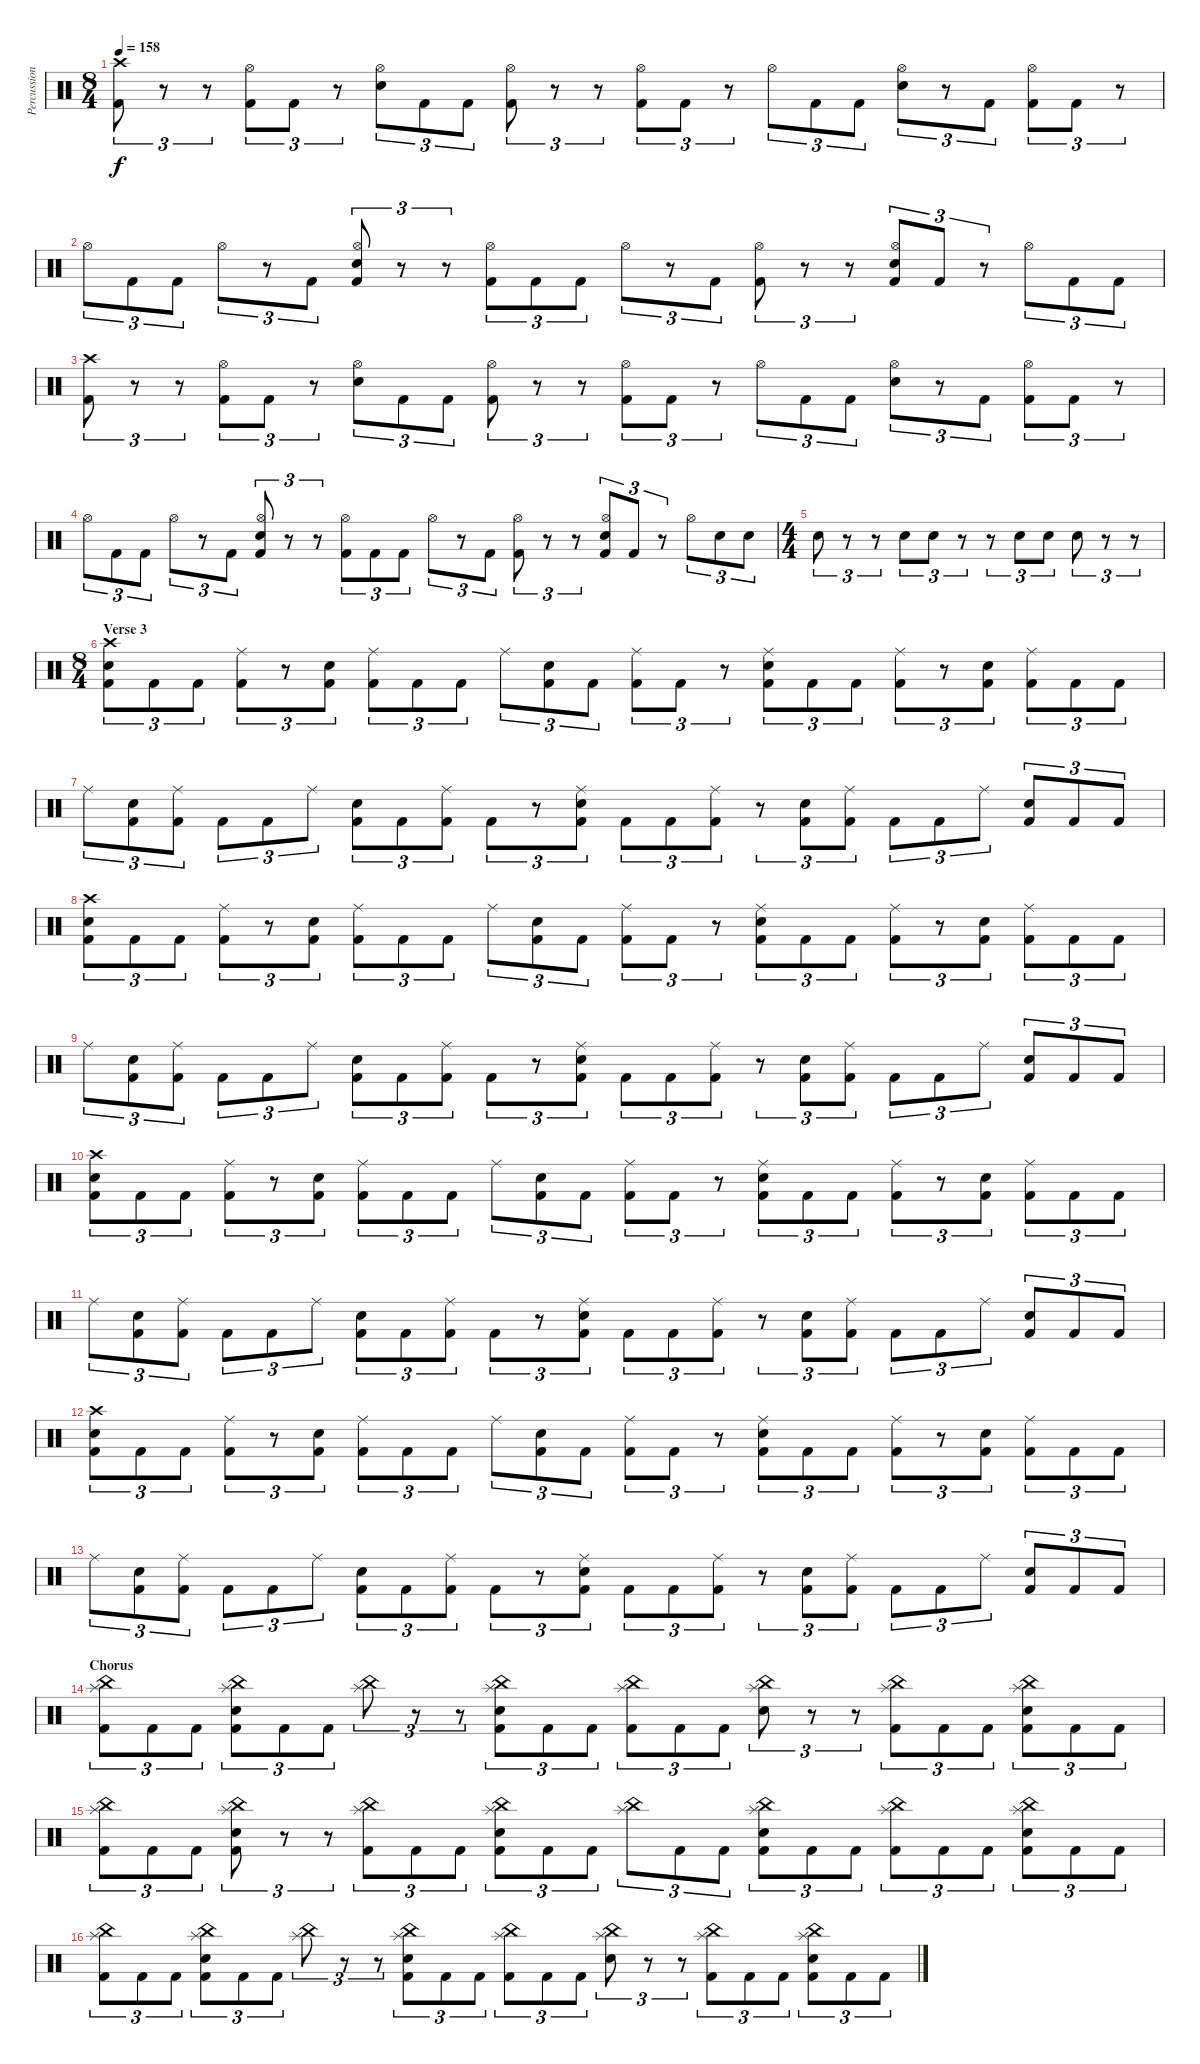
\track ("Percussion" "Percussion") {instrument percussion}
\staff {score}
\articulation defaults
\ts (8 4)
\tempo 158
\clef neutral
\ks c
("Crash high (hit)" "Kick (hit) 2").8{tu (3 2) dy f} r.8{tu (3 2)} r.8{tu (3 2)} ("Hi-Hat (open)" "Kick (hit) 2").8{tu (3 2)} "Kick (hit) 2".8{tu (3 2)} r.8{tu (3 2)} ("Hi-Hat (open)" "Electric Snare (hit)").8{tu (3 2)} "Kick (hit) 2".8{tu (3 2)} "Kick (hit) 2".8{tu (3 2)} ("Hi-Hat (open)" "Kick (hit) 2").8{tu (3 2)} r.8{tu (3 2)} r.8{tu (3 2)} ("Hi-Hat (open)" "Kick (hit) 2").8{tu (3 2)} "Kick (hit) 2".8{tu (3 2)} r.8{tu (3 2)} "Hi-Hat (open)".8{tu (3 2)} "Kick (hit) 2".8{tu (3 2)} "Kick (hit) 2".8{tu (3 2)} ("Hi-Hat (open)" "Electric Snare (hit)").8{tu (3 2)} r.8{tu (3 2)} "Kick (hit) 2".8{tu (3 2)} ("Hi-Hat (open)" "Kick (hit) 2").8{tu (3 2)} "Kick (hit) 2".8{tu (3 2)} r.8{tu (3 2)} |
"Hi-Hat (open)".8{tu (3 2)} "Kick (hit) 2".8{tu (3 2)} "Kick (hit) 2".8{tu (3 2)} "Hi-Hat (open)".8{tu (3 2)} r.8{tu (3 2)} "Kick (hit) 2".8{tu (3 2)} ("Hi-Hat (open)" "Electric Snare (hit)" "Kick (hit) 2").8{tu (3 2)} r.8{tu (3 2)} r.8{tu (3 2)} ("Hi-Hat (open)" "Kick (hit) 2").8{tu (3 2)} "Kick (hit) 2".8{tu (3 2)} "Kick (hit) 2".8{tu (3 2)} "Hi-Hat (open)".8{tu (3 2)} r.8{tu (3 2)} "Kick (hit) 2".8{tu (3 2)} ("Hi-Hat (open)" "Kick (hit) 2").8{tu (3 2)} r.8{tu (3 2)} r.8{tu (3 2)} ("Hi-Hat (open)" "Electric Snare (hit)" "Kick (hit) 2").8{tu (3 2)} "Kick (hit) 2".8{tu (3 2)} r.8{tu (3 2)} "Hi-Hat (open)".8{tu (3 2)} "Kick (hit) 2".8{tu (3 2)} "Kick (hit) 2".8{tu (3 2)} |
("Crash high (hit)" "Kick (hit) 2").8{tu (3 2)} r.8{tu (3 2)} r.8{tu (3 2)} ("Hi-Hat (open)" "Kick (hit) 2").8{tu (3 2)} "Kick (hit) 2".8{tu (3 2)} r.8{tu (3 2)} ("Hi-Hat (open)" "Electric Snare (hit)").8{tu (3 2)} "Kick (hit) 2".8{tu (3 2)} "Kick (hit) 2".8{tu (3 2)} ("Hi-Hat (open)" "Kick (hit) 2").8{tu (3 2)} r.8{tu (3 2)} r.8{tu (3 2)} ("Hi-Hat (open)" "Kick (hit) 2").8{tu (3 2)} "Kick (hit) 2".8{tu (3 2)} r.8{tu (3 2)} "Hi-Hat (open)".8{tu (3 2)} "Kick (hit) 2".8{tu (3 2)} "Kick (hit) 2".8{tu (3 2)} ("Hi-Hat (open)" "Electric Snare (hit)").8{tu (3 2)} r.8{tu (3 2)} "Kick (hit) 2".8{tu (3 2)} ("Hi-Hat (open)" "Kick (hit) 2").8{tu (3 2)} "Kick (hit) 2".8{tu (3 2)} r.8{tu (3 2)} |
"Hi-Hat (open)".8{tu (3 2)} "Kick (hit) 2".8{tu (3 2)} "Kick (hit) 2".8{tu (3 2)} "Hi-Hat (open)".8{tu (3 2)} r.8{tu (3 2)} "Kick (hit) 2".8{tu (3 2)} ("Hi-Hat (open)" "Electric Snare (hit)" "Kick (hit) 2").8{tu (3 2)} r.8{tu (3 2)} r.8{tu (3 2)} ("Hi-Hat (open)" "Kick (hit) 2").8{tu (3 2)} "Kick (hit) 2".8{tu (3 2)} "Kick (hit) 2".8{tu (3 2)} "Hi-Hat (open)".8{tu (3 2)} r.8{tu (3 2)} "Kick (hit) 2".8{tu (3 2)} ("Hi-Hat (open)" "Kick (hit) 2").8{tu (3 2)} r.8{tu (3 2)} r.8{tu (3 2)} ("Hi-Hat (open)" "Electric Snare (hit)" "Kick (hit) 2").8{tu (3 2)} "Kick (hit) 2".8{tu (3 2)} r.8{tu (3 2)} "Hi-Hat (open)".8{tu (3 2)} "Electric Snare (hit)".8{tu (3 2)} "Electric Snare (hit)".8{tu (3 2)} |
\ts (4 4)
"Electric Snare (hit)".8{tu (3 2)} r.8{tu (3 2)} r.8{tu (3 2)} "Electric Snare (hit)".8{tu (3 2)} "Electric Snare (hit)".8{tu (3 2)} r.8{tu (3 2)} r.8{tu (3 2)} "Electric Snare (hit)".8{tu (3 2)} "Electric Snare (hit)".8{tu (3 2)} "Electric Snare (hit)".8{tu (3 2)} r.8{tu (3 2)} r.8{tu (3 2)} |
\ts (8 4)
\section ("" "Verse 3")
("Crash high (hit)" "Electric Snare (hit)" "Kick (hit) 2").8{tu (3 2)} "Kick (hit) 2".8{tu (3 2)} "Kick (hit) 2".8{tu (3 2)} ("Ride (middle)" "Kick (hit) 2").8{tu (3 2)} r.8{tu (3 2)} ("Electric Snare (hit)" "Kick (hit) 2").8{tu (3 2)} ("Ride (middle)" "Kick (hit) 2").8{tu (3 2)} "Kick (hit) 2".8{tu (3 2)} "Kick (hit) 2".8{tu (3 2)} "Ride (middle)".8{tu (3 2)} ("Electric Snare (hit)" "Kick (hit) 2").8{tu (3 2)} "Kick (hit) 2".8{tu (3 2)} ("Ride (middle)" "Kick (hit) 2").8{tu (3 2)} "Kick (hit) 2".8{tu (3 2)} r.8{tu (3 2)} ("Ride (middle)" "Electric Snare (hit)" "Kick (hit) 2").8{tu (3 2)} "Kick (hit) 2".8{tu (3 2)} "Kick (hit) 2".8{tu (3 2)} ("Ride (middle)" "Kick (hit) 2").8{tu (3 2)} r.8{tu (3 2)} ("Electric Snare (hit)" "Kick (hit) 2").8{tu (3 2)} ("Ride (middle)" "Kick (hit) 2").8{tu (3 2)} "Kick (hit) 2".8{tu (3 2)} "Kick (hit) 2".8{tu (3 2)} |
"Ride (middle)".8{tu (3 2)} ("Electric Snare (hit)" "Kick (hit) 2").8{tu (3 2)} ("Ride (middle)" "Kick (hit) 2").8{tu (3 2)} "Kick (hit) 2".8{tu (3 2)} "Kick (hit) 2".8{tu (3 2)} "Ride (middle)".8{tu (3 2)} ("Electric Snare (hit)" "Kick (hit) 2").8{tu (3 2)} "Kick (hit) 2".8{tu (3 2)} ("Ride (middle)" "Kick (hit) 2").8{tu (3 2)} "Kick (hit) 2".8{tu (3 2)} r.8{tu (3 2)} ("Ride (middle)" "Electric Snare (hit)" "Kick (hit) 2").8{tu (3 2)} "Kick (hit) 2".8{tu (3 2)} "Kick (hit) 2".8{tu (3 2)} ("Ride (middle)" "Kick (hit) 2").8{tu (3 2)} r.8{tu (3 2)} ("Electric Snare (hit)" "Kick (hit) 2").8{tu (3 2)} ("Ride (middle)" "Kick (hit) 2").8{tu (3 2)} "Kick (hit) 2".8{tu (3 2)} "Kick (hit) 2".8{tu (3 2)} "Ride (middle)".8{tu (3 2)} ("Electric Snare (hit)" "Kick (hit) 2").8{tu (3 2)} "Kick (hit) 2".8{tu (3 2)} "Kick (hit) 2".8{tu (3 2)} |
("Crash high (hit)" "Electric Snare (hit)" "Kick (hit) 2").8{tu (3 2)} "Kick (hit) 2".8{tu (3 2)} "Kick (hit) 2".8{tu (3 2)} ("Ride (middle)" "Kick (hit) 2").8{tu (3 2)} r.8{tu (3 2)} ("Electric Snare (hit)" "Kick (hit) 2").8{tu (3 2)} ("Ride (middle)" "Kick (hit) 2").8{tu (3 2)} "Kick (hit) 2".8{tu (3 2)} "Kick (hit) 2".8{tu (3 2)} "Ride (middle)".8{tu (3 2)} ("Electric Snare (hit)" "Kick (hit) 2").8{tu (3 2)} "Kick (hit) 2".8{tu (3 2)} ("Ride (middle)" "Kick (hit) 2").8{tu (3 2)} "Kick (hit) 2".8{tu (3 2)} r.8{tu (3 2)} ("Ride (middle)" "Electric Snare (hit)" "Kick (hit) 2").8{tu (3 2)} "Kick (hit) 2".8{tu (3 2)} "Kick (hit) 2".8{tu (3 2)} ("Ride (middle)" "Kick (hit) 2").8{tu (3 2)} r.8{tu (3 2)} ("Electric Snare (hit)" "Kick (hit) 2").8{tu (3 2)} ("Ride (middle)" "Kick (hit) 2").8{tu (3 2)} "Kick (hit) 2".8{tu (3 2)} "Kick (hit) 2".8{tu (3 2)} |
"Ride (middle)".8{tu (3 2)} ("Electric Snare (hit)" "Kick (hit) 2").8{tu (3 2)} ("Ride (middle)" "Kick (hit) 2").8{tu (3 2)} "Kick (hit) 2".8{tu (3 2)} "Kick (hit) 2".8{tu (3 2)} "Ride (middle)".8{tu (3 2)} ("Electric Snare (hit)" "Kick (hit) 2").8{tu (3 2)} "Kick (hit) 2".8{tu (3 2)} ("Ride (middle)" "Kick (hit) 2").8{tu (3 2)} "Kick (hit) 2".8{tu (3 2)} r.8{tu (3 2)} ("Ride (middle)" "Electric Snare (hit)" "Kick (hit) 2").8{tu (3 2)} "Kick (hit) 2".8{tu (3 2)} "Kick (hit) 2".8{tu (3 2)} ("Ride (middle)" "Kick (hit) 2").8{tu (3 2)} r.8{tu (3 2)} ("Electric Snare (hit)" "Kick (hit) 2").8{tu (3 2)} ("Ride (middle)" "Kick (hit) 2").8{tu (3 2)} "Kick (hit) 2".8{tu (3 2)} "Kick (hit) 2".8{tu (3 2)} "Ride (middle)".8{tu (3 2)} ("Electric Snare (hit)" "Kick (hit) 2").8{tu (3 2)} "Kick (hit) 2".8{tu (3 2)} "Kick (hit) 2".8{tu (3 2)} |
("Crash high (hit)" "Electric Snare (hit)" "Kick (hit) 2").8{tu (3 2)} "Kick (hit) 2".8{tu (3 2)} "Kick (hit) 2".8{tu (3 2)} ("Ride (middle)" "Kick (hit) 2").8{tu (3 2)} r.8{tu (3 2)} ("Electric Snare (hit)" "Kick (hit) 2").8{tu (3 2)} ("Ride (middle)" "Kick (hit) 2").8{tu (3 2)} "Kick (hit) 2".8{tu (3 2)} "Kick (hit) 2".8{tu (3 2)} "Ride (middle)".8{tu (3 2)} ("Electric Snare (hit)" "Kick (hit) 2").8{tu (3 2)} "Kick (hit) 2".8{tu (3 2)} ("Ride (middle)" "Kick (hit) 2").8{tu (3 2)} "Kick (hit) 2".8{tu (3 2)} r.8{tu (3 2)} ("Ride (middle)" "Electric Snare (hit)" "Kick (hit) 2").8{tu (3 2)} "Kick (hit) 2".8{tu (3 2)} "Kick (hit) 2".8{tu (3 2)} ("Ride (middle)" "Kick (hit) 2").8{tu (3 2)} r.8{tu (3 2)} ("Electric Snare (hit)" "Kick (hit) 2").8{tu (3 2)} ("Ride (middle)" "Kick (hit) 2").8{tu (3 2)} "Kick (hit) 2".8{tu (3 2)} "Kick (hit) 2".8{tu (3 2)} |
"Ride (middle)".8{tu (3 2)} ("Electric Snare (hit)" "Kick (hit) 2").8{tu (3 2)} ("Ride (middle)" "Kick (hit) 2").8{tu (3 2)} "Kick (hit) 2".8{tu (3 2)} "Kick (hit) 2".8{tu (3 2)} "Ride (middle)".8{tu (3 2)} ("Electric Snare (hit)" "Kick (hit) 2").8{tu (3 2)} "Kick (hit) 2".8{tu (3 2)} ("Ride (middle)" "Kick (hit) 2").8{tu (3 2)} "Kick (hit) 2".8{tu (3 2)} r.8{tu (3 2)} ("Ride (middle)" "Electric Snare (hit)" "Kick (hit) 2").8{tu (3 2)} "Kick (hit) 2".8{tu (3 2)} "Kick (hit) 2".8{tu (3 2)} ("Ride (middle)" "Kick (hit) 2").8{tu (3 2)} r.8{tu (3 2)} ("Electric Snare (hit)" "Kick (hit) 2").8{tu (3 2)} ("Ride (middle)" "Kick (hit) 2").8{tu (3 2)} "Kick (hit) 2".8{tu (3 2)} "Kick (hit) 2".8{tu (3 2)} "Ride (middle)".8{tu (3 2)} ("Electric Snare (hit)" "Kick (hit) 2").8{tu (3 2)} "Kick (hit) 2".8{tu (3 2)} "Kick (hit) 2".8{tu (3 2)} |
("Crash high (hit)" "Electric Snare (hit)" "Kick (hit) 2").8{tu (3 2)} "Kick (hit) 2".8{tu (3 2)} "Kick (hit) 2".8{tu (3 2)} ("Ride (middle)" "Kick (hit) 2").8{tu (3 2)} r.8{tu (3 2)} ("Electric Snare (hit)" "Kick (hit) 2").8{tu (3 2)} ("Ride (middle)" "Kick (hit) 2").8{tu (3 2)} "Kick (hit) 2".8{tu (3 2)} "Kick (hit) 2".8{tu (3 2)} "Ride (middle)".8{tu (3 2)} ("Electric Snare (hit)" "Kick (hit) 2").8{tu (3 2)} "Kick (hit) 2".8{tu (3 2)} ("Ride (middle)" "Kick (hit) 2").8{tu (3 2)} "Kick (hit) 2".8{tu (3 2)} r.8{tu (3 2)} ("Ride (middle)" "Electric Snare (hit)" "Kick (hit) 2").8{tu (3 2)} "Kick (hit) 2".8{tu (3 2)} "Kick (hit) 2".8{tu (3 2)} ("Ride (middle)" "Kick (hit) 2").8{tu (3 2)} r.8{tu (3 2)} ("Electric Snare (hit)" "Kick (hit) 2").8{tu (3 2)} ("Ride (middle)" "Kick (hit) 2").8{tu (3 2)} "Kick (hit) 2".8{tu (3 2)} "Kick (hit) 2".8{tu (3 2)} |
"Ride (middle)".8{tu (3 2)} ("Electric Snare (hit)" "Kick (hit) 2").8{tu (3 2)} ("Ride (middle)" "Kick (hit) 2").8{tu (3 2)} "Kick (hit) 2".8{tu (3 2)} "Kick (hit) 2".8{tu (3 2)} "Ride (middle)".8{tu (3 2)} ("Electric Snare (hit)" "Kick (hit) 2").8{tu (3 2)} "Kick (hit) 2".8{tu (3 2)} ("Ride (middle)" "Kick (hit) 2").8{tu (3 2)} "Kick (hit) 2".8{tu (3 2)} r.8{tu (3 2)} ("Ride (middle)" "Electric Snare (hit)" "Kick (hit) 2").8{tu (3 2)} "Kick (hit) 2".8{tu (3 2)} "Kick (hit) 2".8{tu (3 2)} ("Ride (middle)" "Kick (hit) 2").8{tu (3 2)} r.8{tu (3 2)} ("Electric Snare (hit)" "Kick (hit) 2").8{tu (3 2)} ("Ride (middle)" "Kick (hit) 2").8{tu (3 2)} "Kick (hit) 2".8{tu (3 2)} "Kick (hit) 2".8{tu (3 2)} "Ride (middle)".8{tu (3 2)} ("Electric Snare (hit)" "Kick (hit) 2").8{tu (3 2)} "Kick (hit) 2".8{tu (3 2)} "Kick (hit) 2".8{tu (3 2)} |
\section ("" "Chorus")
("China (hit)" "Splash (hit)" "Kick (hit) 2").8{tu (3 2)} "Kick (hit) 2".8{tu (3 2)} "Kick (hit) 2".8{tu (3 2)} ("China (hit)" "Splash (hit)" "Electric Snare (hit)" "Kick (hit) 2").8{tu (3 2)} "Kick (hit) 2".8{tu (3 2)} "Kick (hit) 2".8{tu (3 2)} ("China (hit)" "Splash (hit)").8{tu (3 2)} r.8{tu (3 2)} r.8{tu (3 2)} ("China (hit)" "Splash (hit)" "Electric Snare (hit)" "Kick (hit) 2").8{tu (3 2)} "Kick (hit) 2".8{tu (3 2)} "Kick (hit) 2".8{tu (3 2)} ("China (hit)" "Splash (hit)" "Kick (hit) 2").8{tu (3 2)} "Kick (hit) 2".8{tu (3 2)} "Kick (hit) 2".8{tu (3 2)} ("China (hit)" "Splash (hit)" "Electric Snare (hit)").8{tu (3 2)} r.8{tu (3 2)} r.8{tu (3 2)} ("China (hit)" "Splash (hit)" "Kick (hit) 2").8{tu (3 2)} "Kick (hit) 2".8{tu (3 2)} "Kick (hit) 2".8{tu (3 2)} ("China (hit)" "Splash (hit)" "Electric Snare (hit)" "Kick (hit) 2").8{tu (3 2)} "Kick (hit) 2".8{tu (3 2)} "Kick (hit) 2".8{tu (3 2)} |
("China (hit)" "Splash (hit)" "Kick (hit) 2").8{tu (3 2)} "Kick (hit) 2".8{tu (3 2)} "Kick (hit) 2".8{tu (3 2)} ("China (hit)" "Splash (hit)" "Electric Snare (hit)" "Kick (hit) 2").8{tu (3 2)} r.8{tu (3 2)} r.8{tu (3 2)} ("China (hit)" "Splash (hit)" "Kick (hit) 2").8{tu (3 2)} "Kick (hit) 2".8{tu (3 2)} "Kick (hit) 2".8{tu (3 2)} ("China (hit)" "Splash (hit)" "Electric Snare (hit)" "Kick (hit) 2").8{tu (3 2)} "Kick (hit) 2".8{tu (3 2)} "Kick (hit) 2".8{tu (3 2)} ("China (hit)" "Splash (hit)").8{tu (3 2)} "Kick (hit) 2".8{tu (3 2)} "Kick (hit) 2".8{tu (3 2)} ("China (hit)" "Splash (hit)" "Electric Snare (hit)" "Kick (hit) 2").8{tu (3 2)} "Kick (hit) 2".8{tu (3 2)} "Kick (hit) 2".8{tu (3 2)} ("China (hit)" "Splash (hit)" "Kick (hit) 2").8{tu (3 2)} "Kick (hit) 2".8{tu (3 2)} "Kick (hit) 2".8{tu (3 2)} ("China (hit)" "Splash (hit)" "Electric Snare (hit)" "Kick (hit) 2").8{tu (3 2)} "Kick (hit) 2".8{tu (3 2)} "Kick (hit) 2".8{tu (3 2)} |
("China (hit)" "Splash (hit)" "Kick (hit) 2").8{tu (3 2)} "Kick (hit) 2".8{tu (3 2)} "Kick (hit) 2".8{tu (3 2)} ("China (hit)" "Splash (hit)" "Electric Snare (hit)" "Kick (hit) 2").8{tu (3 2)} "Kick (hit) 2".8{tu (3 2)} "Kick (hit) 2".8{tu (3 2)} ("China (hit)" "Splash (hit)").8{tu (3 2)} r.8{tu (3 2)} r.8{tu (3 2)} ("China (hit)" "Splash (hit)" "Electric Snare (hit)" "Kick (hit) 2").8{tu (3 2)} "Kick (hit) 2".8{tu (3 2)} "Kick (hit) 2".8{tu (3 2)} ("China (hit)" "Splash (hit)" "Kick (hit) 2").8{tu (3 2)} "Kick (hit) 2".8{tu (3 2)} "Kick (hit) 2".8{tu (3 2)} ("China (hit)" "Splash (hit)" "Electric Snare (hit)").8{tu (3 2)} r.8{tu (3 2)} r.8{tu (3 2)} ("China (hit)" "Splash (hit)" "Kick (hit) 2").8{tu (3 2)} "Kick (hit) 2".8{tu (3 2)} "Kick (hit) 2".8{tu (3 2)} ("China (hit)" "Splash (hit)" "Electric Snare (hit)" "Kick (hit) 2").8{tu (3 2)} "Kick (hit) 2".8{tu (3 2)} "Kick (hit) 2".8{tu (3 2)}
